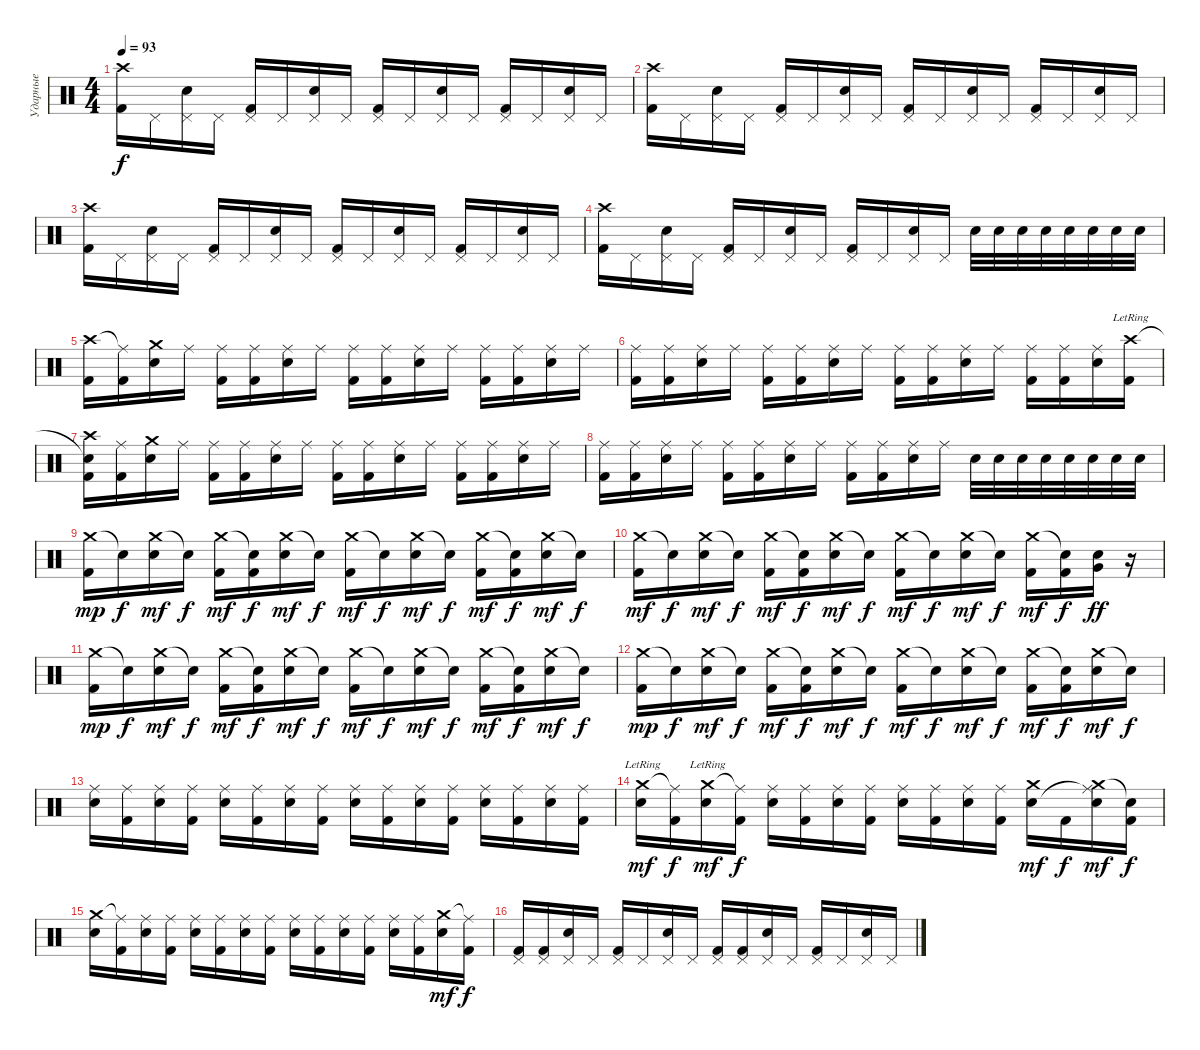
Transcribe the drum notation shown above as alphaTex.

\track ("Ударные" "Ударные") {instrument percussion}
\staff {score}
\articulation defaults
\ts (4 4)
\tempo 93
\clef neutral
\ks c
("Crash high (hit)" "Kick (hit) 2").16{dy f} "Pedal Hi-Hat (hit)".16 ("Pedal Hi-Hat (hit)" "Electric Snare (hit)").16 "Pedal Hi-Hat (hit)".16 ("Pedal Hi-Hat (hit)" "Kick (hit) 2").16 "Pedal Hi-Hat (hit)".16 ("Pedal Hi-Hat (hit)" "Electric Snare (hit)").16 "Pedal Hi-Hat (hit)".16 ("Pedal Hi-Hat (hit)" "Kick (hit) 2").16 "Pedal Hi-Hat (hit)".16 ("Pedal Hi-Hat (hit)" "Electric Snare (hit)").16 "Pedal Hi-Hat (hit)".16 ("Pedal Hi-Hat (hit)" "Kick (hit) 2").16 "Pedal Hi-Hat (hit)".16 ("Pedal Hi-Hat (hit)" "Electric Snare (hit)").16 "Pedal Hi-Hat (hit)".16 |
("Crash high (hit)" "Kick (hit) 2").16 "Pedal Hi-Hat (hit)".16 ("Pedal Hi-Hat (hit)" "Electric Snare (hit)").16 "Pedal Hi-Hat (hit)".16 ("Pedal Hi-Hat (hit)" "Kick (hit) 2").16 "Pedal Hi-Hat (hit)".16 ("Pedal Hi-Hat (hit)" "Electric Snare (hit)").16 "Pedal Hi-Hat (hit)".16 ("Pedal Hi-Hat (hit)" "Kick (hit) 2").16 "Pedal Hi-Hat (hit)".16 ("Pedal Hi-Hat (hit)" "Electric Snare (hit)").16 "Pedal Hi-Hat (hit)".16 ("Pedal Hi-Hat (hit)" "Kick (hit) 2").16 "Pedal Hi-Hat (hit)".16 ("Pedal Hi-Hat (hit)" "Electric Snare (hit)").16 "Pedal Hi-Hat (hit)".16 |
("Crash high (hit)" "Kick (hit) 2").16 "Pedal Hi-Hat (hit)".16 ("Pedal Hi-Hat (hit)" "Electric Snare (hit)").16 "Pedal Hi-Hat (hit)".16 ("Pedal Hi-Hat (hit)" "Kick (hit) 2").16 "Pedal Hi-Hat (hit)".16 ("Pedal Hi-Hat (hit)" "Electric Snare (hit)").16 "Pedal Hi-Hat (hit)".16 ("Pedal Hi-Hat (hit)" "Kick (hit) 2").16 "Pedal Hi-Hat (hit)".16 ("Pedal Hi-Hat (hit)" "Electric Snare (hit)").16 "Pedal Hi-Hat (hit)".16 ("Pedal Hi-Hat (hit)" "Kick (hit) 2").16 "Pedal Hi-Hat (hit)".16 ("Pedal Hi-Hat (hit)" "Electric Snare (hit)").16 "Pedal Hi-Hat (hit)".16 |
("Crash high (hit)" "Kick (hit) 2").16 "Pedal Hi-Hat (hit)".16 ("Pedal Hi-Hat (hit)" "Electric Snare (hit)").16 "Pedal Hi-Hat (hit)".16 ("Pedal Hi-Hat (hit)" "Kick (hit) 2").16 "Pedal Hi-Hat (hit)".16 ("Pedal Hi-Hat (hit)" "Electric Snare (hit)").16 "Pedal Hi-Hat (hit)".16 ("Pedal Hi-Hat (hit)" "Kick (hit) 2").16 "Pedal Hi-Hat (hit)".16 ("Pedal Hi-Hat (hit)" "Electric Snare (hit)").16 "Pedal Hi-Hat (hit)".16 "Electric Snare (hit)".32 "Electric Snare (hit)".32 "Electric Snare (hit)".32 "Electric Snare (hit)".32 "Electric Snare (hit)".32 "Electric Snare (hit)".32 "Electric Snare (hit)".32 "Electric Snare (hit)".32 |
("Crash high (hit)" "Kick (hit) 2").16 ("Ride (middle)"{t} "Kick (hit) 2").16 ("Crash medium (hit)" "Electric Snare (hit)").16 "Ride (middle)".16 ("Ride (middle)" "Kick (hit) 2").16 ("Ride (middle)" "Kick (hit) 2").16 ("Ride (middle)" "Electric Snare (hit)").16 "Ride (middle)".16 ("Ride (middle)" "Kick (hit) 2").16 ("Ride (middle)" "Kick (hit) 2").16 ("Ride (middle)" "Electric Snare (hit)").16 "Ride (middle)".16 ("Ride (middle)" "Kick (hit) 2").16 ("Ride (middle)" "Kick (hit) 2").16 ("Ride (middle)" "Electric Snare (hit)").16 "Ride (middle)".16 |
("Ride (middle)" "Kick (hit) 2").16 ("Ride (middle)" "Kick (hit) 2").16 ("Ride (middle)" "Electric Snare (hit)").16 "Ride (middle)".16 ("Ride (middle)" "Kick (hit) 2").16 ("Ride (middle)" "Kick (hit) 2").16 ("Ride (middle)" "Electric Snare (hit)").16 "Ride (middle)".16 ("Ride (middle)" "Kick (hit) 2").16 ("Ride (middle)" "Kick (hit) 2").16 ("Ride (middle)" "Electric Snare (hit)").16 "Ride (middle)".16 ("Ride (middle)" "Kick (hit) 2").16 ("Ride (middle)" "Kick (hit) 2").16 ("Ride (middle)" "Electric Snare (hit)").16 ("Crash high (hit)"{lr} "Kick (hit) 2").16 |
("Snare (hit)"{t} "Crash high (hit)" "Kick (hit) 2").16 ("Ride (middle)" "Kick (hit) 2").16 ("Crash medium (hit)" "Electric Snare (hit)").16 "Ride (middle)".16 ("Ride (middle)" "Kick (hit) 2").16 ("Ride (middle)" "Kick (hit) 2").16 ("Ride (middle)" "Electric Snare (hit)").16 "Ride (middle)".16 ("Ride (middle)" "Kick (hit) 2").16 ("Ride (middle)" "Kick (hit) 2").16 ("Ride (middle)" "Electric Snare (hit)").16 "Ride (middle)".16 ("Ride (middle)" "Kick (hit) 2").16 ("Ride (middle)" "Kick (hit) 2").16 ("Ride (middle)" "Electric Snare (hit)").16 "Ride (middle)".16 |
("Ride (middle)" "Kick (hit) 2").16 ("Ride (middle)" "Kick (hit) 2").16 ("Ride (middle)" "Electric Snare (hit)").16 "Ride (middle)".16 ("Ride (middle)" "Kick (hit) 2").16 ("Ride (middle)" "Kick (hit) 2").16 ("Ride (middle)" "Electric Snare (hit)").16 "Ride (middle)".16 ("Ride (middle)" "Kick (hit) 2").16 ("Ride (middle)" "Kick (hit) 2").16 ("Ride (middle)" "Electric Snare (hit)").16 "Ride (middle)".16 "Electric Snare (hit)".32 "Electric Snare (hit)".32 "Electric Snare (hit)".32 "Electric Snare (hit)".32 "Electric Snare (hit)".32 "Electric Snare (hit)".32 "Electric Snare (hit)".32 "Electric Snare (hit)".32 |
("Crash medium (hit)" "Kick (hit) 2").16{dy mp} "Snare (hit)"{t}.16{dy f} ("Crash medium (hit)" "Electric Snare (hit)").16{dy mf} "Snare (hit)"{t}.16{dy f} ("Crash medium (hit)" "Kick (hit) 2").16{dy mf} ("Snare (hit)"{t} "Kick (hit) 2").16{dy f} ("Crash medium (hit)" "Electric Snare (hit)").16{dy mf} "Snare (hit)"{t}.16{dy f} ("Crash medium (hit)" "Kick (hit) 2").16{dy mf} "Snare (hit)"{t}.16{dy f} ("Crash medium (hit)" "Electric Snare (hit)").16{dy mf} "Snare (hit)"{t}.16{dy f} ("Crash medium (hit)" "Kick (hit) 2").16{dy mf} ("Snare (hit)"{t} "Kick (hit) 2").16{dy f} ("Crash medium (hit)" "Electric Snare (hit)").16{dy mf} "Snare (hit)"{t}.16{dy f} |
("Crash medium (hit)" "Kick (hit) 2").16{dy mf} "Snare (hit)"{t}.16{dy f} ("Crash medium (hit)" "Electric Snare (hit)").16{dy mf} "Snare (hit)"{t}.16{dy f} ("Crash medium (hit)" "Kick (hit) 2").16{dy mf} ("Snare (hit)"{t} "Kick (hit) 2").16{dy f} ("Crash medium (hit)" "Electric Snare (hit)").16{dy mf} "Snare (hit)"{t}.16{dy f} ("Crash medium (hit)" "Kick (hit) 2").16{dy mf} "Snare (hit)"{t}.16{dy f} ("Crash medium (hit)" "Electric Snare (hit)").16{dy mf} "Snare (hit)"{t}.16{dy f} ("Crash medium (hit)" "Kick (hit) 2").16{dy mf} ("Snare (hit)"{t} "Kick (hit) 2").16{dy f} ("Very Low Tom (hit)" "Electric Snare (hit)").16{dy ff} r.16 |
("Crash medium (hit)" "Kick (hit) 2").16{dy mp} "Snare (hit)"{t}.16{dy f} ("Crash medium (hit)" "Electric Snare (hit)").16{dy mf} "Snare (hit)"{t}.16{dy f} ("Crash medium (hit)" "Kick (hit) 2").16{dy mf} ("Snare (hit)"{t} "Kick (hit) 2").16{dy f} ("Crash medium (hit)" "Electric Snare (hit)").16{dy mf} "Snare (hit)"{t}.16{dy f} ("Crash medium (hit)" "Kick (hit) 2").16{dy mf} "Snare (hit)"{t}.16{dy f} ("Crash medium (hit)" "Electric Snare (hit)").16{dy mf} "Snare (hit)"{t}.16{dy f} ("Crash medium (hit)" "Kick (hit) 2").16{dy mf} ("Snare (hit)"{t} "Kick (hit) 2").16{dy f} ("Crash medium (hit)" "Electric Snare (hit)").16{dy mf} "Snare (hit)"{t}.16{dy f} |
("Crash medium (hit)" "Kick (hit) 2").16{dy mp} "Snare (hit)"{t}.16{dy f} ("Crash medium (hit)" "Electric Snare (hit)").16{dy mf} "Snare (hit)"{t}.16{dy f} ("Crash medium (hit)" "Kick (hit) 2").16{dy mf} ("Snare (hit)"{t} "Kick (hit) 2").16{dy f} ("Crash medium (hit)" "Electric Snare (hit)").16{dy mf} "Snare (hit)"{t}.16{dy f} ("Crash medium (hit)" "Kick (hit) 2").16{dy mf} "Snare (hit)"{t}.16{dy f} ("Crash medium (hit)" "Electric Snare (hit)").16{dy mf} "Snare (hit)"{t}.16{dy f} ("Crash medium (hit)" "Kick (hit) 2").16{dy mf} ("Snare (hit)"{t} "Kick (hit) 2").16{dy f} ("Crash medium (hit)" "Electric Snare (hit)").16{dy mf} "Snare (hit)"{t}.16{dy f} |
("Ride (middle)" "Electric Snare (hit)").16 ("Ride (middle)" "Kick (hit) 2").16 ("Ride (middle)" "Electric Snare (hit)").16 ("Ride (middle)" "Kick (hit) 2").16 ("Ride (middle)" "Electric Snare (hit)").16 ("Ride (middle)" "Kick (hit) 2").16 ("Ride (middle)" "Electric Snare (hit)").16 ("Ride (middle)" "Kick (hit) 2").16 ("Ride (middle)" "Electric Snare (hit)").16 ("Ride (middle)" "Kick (hit) 2").16 ("Ride (middle)" "Electric Snare (hit)").16 ("Ride (middle)" "Kick (hit) 2").16 ("Ride (middle)" "Electric Snare (hit)").16 ("Ride (middle)" "Kick (hit) 2").16 ("Ride (middle)" "Electric Snare (hit)").16 ("Ride (middle)" "Kick (hit) 2").16 |
("Crash medium (hit)"{lr} "Electric Snare (hit)").16{dy mf} ("Ride (middle)"{t} "Kick (hit) 2").16{dy f} ("Crash medium (hit)"{lr} "Electric Snare (hit)").16{dy mf} ("Ride (middle)"{t} "Kick (hit) 2").16{dy f} ("Ride (middle)" "Electric Snare (hit)").16 ("Ride (middle)" "Kick (hit) 2").16 ("Ride (middle)" "Electric Snare (hit)").16 ("Ride (middle)" "Kick (hit) 2").16 ("Ride (middle)" "Electric Snare (hit)").16 ("Ride (middle)" "Kick (hit) 2").16 ("Ride (middle)" "Electric Snare (hit)").16 ("Ride (middle)" "Kick (hit) 2").16 ("Crash medium (hit)" "Electric Snare (hit)").16{dy mf} "Kick (hit) 2".16{dy f} ("Crash medium (hit)" "Ride (middle)"{t} "Electric Snare (hit)").16{dy mf} ("Snare (hit)"{t} "Kick (hit) 2").16{dy f} |
("Crash medium (hit)" "Electric Snare (hit)").16 ("Ride (middle)"{t} "Kick (hit) 2").16 ("Ride (middle)" "Electric Snare (hit)").16 ("Ride (middle)" "Kick (hit) 2").16 ("Ride (middle)" "Electric Snare (hit)").16 ("Ride (middle)" "Kick (hit) 2").16 ("Ride (middle)" "Electric Snare (hit)").16 ("Ride (middle)" "Kick (hit) 2").16 ("Ride (middle)" "Electric Snare (hit)").16 ("Ride (middle)" "Kick (hit) 2").16 ("Ride (middle)" "Electric Snare (hit)").16 ("Ride (middle)" "Kick (hit) 2").16 ("Ride (middle)" "Electric Snare (hit)").16 ("Ride (middle)" "Kick (hit) 2").16 ("Crash medium (hit)" "Electric Snare (hit)").16{dy mf} ("Ride (middle)"{t} "Kick (hit) 2").16{dy f} |
("Pedal Hi-Hat (hit)" "Kick (hit) 2").16 ("Pedal Hi-Hat (hit)" "Kick (hit) 2").16 ("Pedal Hi-Hat (hit)" "Electric Snare (hit)").16 "Pedal Hi-Hat (hit)".16 ("Pedal Hi-Hat (hit)" "Kick (hit) 2").16 "Pedal Hi-Hat (hit)".16 ("Pedal Hi-Hat (hit)" "Electric Snare (hit)").16 "Pedal Hi-Hat (hit)".16 ("Pedal Hi-Hat (hit)" "Kick (hit) 2").16 ("Pedal Hi-Hat (hit)" "Kick (hit) 2").16 ("Pedal Hi-Hat (hit)" "Electric Snare (hit)").16 "Pedal Hi-Hat (hit)".16 ("Pedal Hi-Hat (hit)" "Kick (hit) 2").16 "Pedal Hi-Hat (hit)".16 ("Pedal Hi-Hat (hit)" "Electric Snare (hit)").16 "Pedal Hi-Hat (hit)".16
